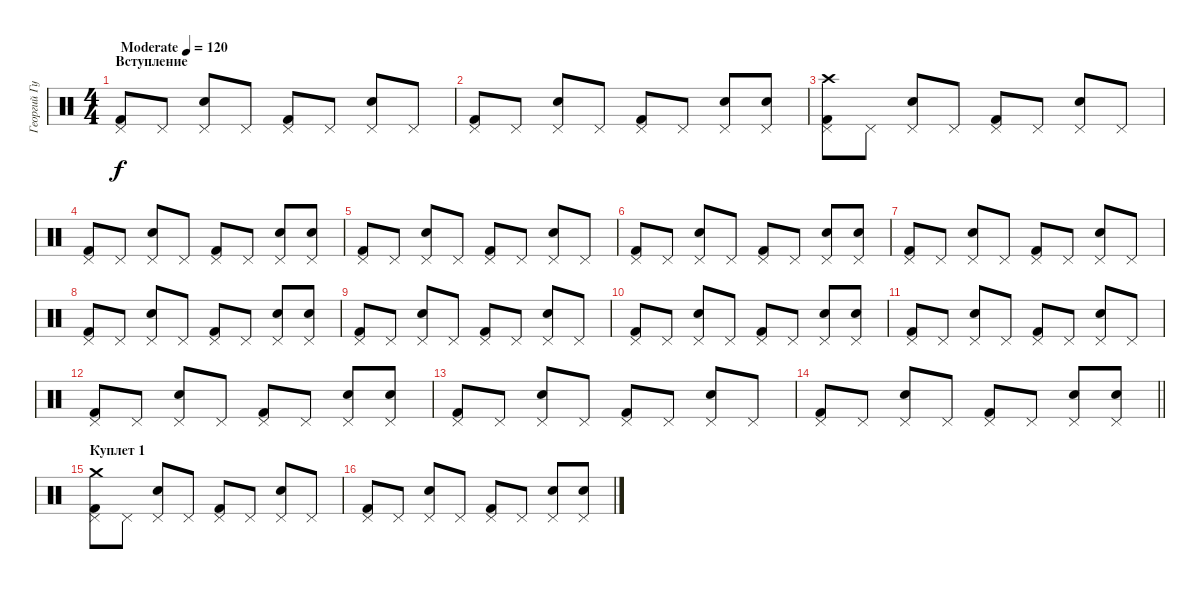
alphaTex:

\track ("Георгий Гурьянов" "Георгий Гу") {instrument percussion}
\staff {score}
\articulation defaults
\ts (4 4)
\section ("" "Вступление")
\tempo (120 "Moderate")
\clef neutral
\ks c
("Pedal Hi-Hat (hit)" "Kick (hit) 2").8{dy f} "Pedal Hi-Hat (hit)".8 ("Pedal Hi-Hat (hit)" "Snare (hit) 2").8 "Pedal Hi-Hat (hit)".8 ("Pedal Hi-Hat (hit)" "Kick (hit) 2").8 "Pedal Hi-Hat (hit)".8 ("Pedal Hi-Hat (hit)" "Snare (hit) 2").8 "Pedal Hi-Hat (hit)".8 |
("Pedal Hi-Hat (hit)" "Kick (hit) 2").8 "Pedal Hi-Hat (hit)".8 ("Pedal Hi-Hat (hit)" "Snare (hit) 2").8 "Pedal Hi-Hat (hit)".8 ("Pedal Hi-Hat (hit)" "Kick (hit) 2").8 "Pedal Hi-Hat (hit)".8 ("Pedal Hi-Hat (hit)" "Snare (hit) 2").8 ("Pedal Hi-Hat (hit)" "Snare (hit) 2").8 |
("Pedal Hi-Hat (hit)" "Kick (hit) 2" "Crash high (hit)").8 "Pedal Hi-Hat (hit)".8 ("Pedal Hi-Hat (hit)" "Snare (hit) 2").8 "Pedal Hi-Hat (hit)".8 ("Pedal Hi-Hat (hit)" "Kick (hit) 2").8 "Pedal Hi-Hat (hit)".8 ("Pedal Hi-Hat (hit)" "Snare (hit) 2").8 "Pedal Hi-Hat (hit)".8 |
("Pedal Hi-Hat (hit)" "Kick (hit) 2").8 "Pedal Hi-Hat (hit)".8 ("Pedal Hi-Hat (hit)" "Snare (hit) 2").8 "Pedal Hi-Hat (hit)".8 ("Pedal Hi-Hat (hit)" "Kick (hit) 2").8 "Pedal Hi-Hat (hit)".8 ("Pedal Hi-Hat (hit)" "Snare (hit) 2").8 ("Pedal Hi-Hat (hit)" "Snare (hit) 2").8 |
("Pedal Hi-Hat (hit)" "Kick (hit) 2").8 "Pedal Hi-Hat (hit)".8 ("Pedal Hi-Hat (hit)" "Snare (hit) 2").8 "Pedal Hi-Hat (hit)".8 ("Pedal Hi-Hat (hit)" "Kick (hit) 2").8 "Pedal Hi-Hat (hit)".8 ("Pedal Hi-Hat (hit)" "Snare (hit) 2").8 "Pedal Hi-Hat (hit)".8 |
("Pedal Hi-Hat (hit)" "Kick (hit) 2").8 "Pedal Hi-Hat (hit)".8 ("Pedal Hi-Hat (hit)" "Snare (hit) 2").8 "Pedal Hi-Hat (hit)".8 ("Pedal Hi-Hat (hit)" "Kick (hit) 2").8 "Pedal Hi-Hat (hit)".8 ("Pedal Hi-Hat (hit)" "Snare (hit) 2").8 ("Pedal Hi-Hat (hit)" "Snare (hit) 2").8 |
("Pedal Hi-Hat (hit)" "Kick (hit) 2").8 "Pedal Hi-Hat (hit)".8 ("Pedal Hi-Hat (hit)" "Snare (hit) 2").8 "Pedal Hi-Hat (hit)".8 ("Pedal Hi-Hat (hit)" "Kick (hit) 2").8 "Pedal Hi-Hat (hit)".8 ("Pedal Hi-Hat (hit)" "Snare (hit) 2").8 "Pedal Hi-Hat (hit)".8 |
("Pedal Hi-Hat (hit)" "Kick (hit) 2").8 "Pedal Hi-Hat (hit)".8 ("Pedal Hi-Hat (hit)" "Snare (hit) 2").8 "Pedal Hi-Hat (hit)".8 ("Pedal Hi-Hat (hit)" "Kick (hit) 2").8 "Pedal Hi-Hat (hit)".8 ("Pedal Hi-Hat (hit)" "Snare (hit) 2").8 ("Pedal Hi-Hat (hit)" "Snare (hit) 2").8 |
("Pedal Hi-Hat (hit)" "Kick (hit) 2").8 "Pedal Hi-Hat (hit)".8 ("Pedal Hi-Hat (hit)" "Snare (hit) 2").8 "Pedal Hi-Hat (hit)".8 ("Pedal Hi-Hat (hit)" "Kick (hit) 2").8 "Pedal Hi-Hat (hit)".8 ("Pedal Hi-Hat (hit)" "Snare (hit) 2").8 "Pedal Hi-Hat (hit)".8 |
("Pedal Hi-Hat (hit)" "Kick (hit) 2").8 "Pedal Hi-Hat (hit)".8 ("Pedal Hi-Hat (hit)" "Snare (hit) 2").8 "Pedal Hi-Hat (hit)".8 ("Pedal Hi-Hat (hit)" "Kick (hit) 2").8 "Pedal Hi-Hat (hit)".8 ("Pedal Hi-Hat (hit)" "Snare (hit) 2").8 ("Pedal Hi-Hat (hit)" "Snare (hit) 2").8 |
("Pedal Hi-Hat (hit)" "Kick (hit) 2").8 "Pedal Hi-Hat (hit)".8 ("Pedal Hi-Hat (hit)" "Snare (hit) 2").8 "Pedal Hi-Hat (hit)".8 ("Pedal Hi-Hat (hit)" "Kick (hit) 2").8 "Pedal Hi-Hat (hit)".8 ("Pedal Hi-Hat (hit)" "Snare (hit) 2").8 "Pedal Hi-Hat (hit)".8 |
("Pedal Hi-Hat (hit)" "Kick (hit) 2").8 "Pedal Hi-Hat (hit)".8 ("Pedal Hi-Hat (hit)" "Snare (hit) 2").8 "Pedal Hi-Hat (hit)".8 ("Pedal Hi-Hat (hit)" "Kick (hit) 2").8 "Pedal Hi-Hat (hit)".8 ("Pedal Hi-Hat (hit)" "Snare (hit) 2").8 ("Pedal Hi-Hat (hit)" "Snare (hit) 2").8 |
("Pedal Hi-Hat (hit)" "Kick (hit) 2").8 "Pedal Hi-Hat (hit)".8 ("Pedal Hi-Hat (hit)" "Snare (hit) 2").8 "Pedal Hi-Hat (hit)".8 ("Pedal Hi-Hat (hit)" "Kick (hit) 2").8 "Pedal Hi-Hat (hit)".8 ("Pedal Hi-Hat (hit)" "Snare (hit) 2").8 "Pedal Hi-Hat (hit)".8 |
\barLineRight lightlight
("Pedal Hi-Hat (hit)" "Kick (hit) 2").8 "Pedal Hi-Hat (hit)".8 ("Pedal Hi-Hat (hit)" "Snare (hit) 2").8 "Pedal Hi-Hat (hit)".8 ("Pedal Hi-Hat (hit)" "Kick (hit) 2").8 "Pedal Hi-Hat (hit)".8 ("Pedal Hi-Hat (hit)" "Snare (hit) 2").8 ("Pedal Hi-Hat (hit)" "Snare (hit) 2").8 |
\section ("" "Куплет 1")
("Pedal Hi-Hat (hit)" "Kick (hit) 2" "Crash medium (hit)").8 "Pedal Hi-Hat (hit)".8 ("Pedal Hi-Hat (hit)" "Snare (hit) 2").8 "Pedal Hi-Hat (hit)".8 ("Pedal Hi-Hat (hit)" "Kick (hit) 2").8 "Pedal Hi-Hat (hit)".8 ("Pedal Hi-Hat (hit)" "Snare (hit) 2").8 "Pedal Hi-Hat (hit)".8 |
("Pedal Hi-Hat (hit)" "Kick (hit) 2").8 "Pedal Hi-Hat (hit)".8 ("Pedal Hi-Hat (hit)" "Snare (hit) 2").8 "Pedal Hi-Hat (hit)".8 ("Pedal Hi-Hat (hit)" "Kick (hit) 2").8 "Pedal Hi-Hat (hit)".8 ("Pedal Hi-Hat (hit)" "Snare (hit) 2").8 ("Pedal Hi-Hat (hit)" "Snare (hit) 2").8
